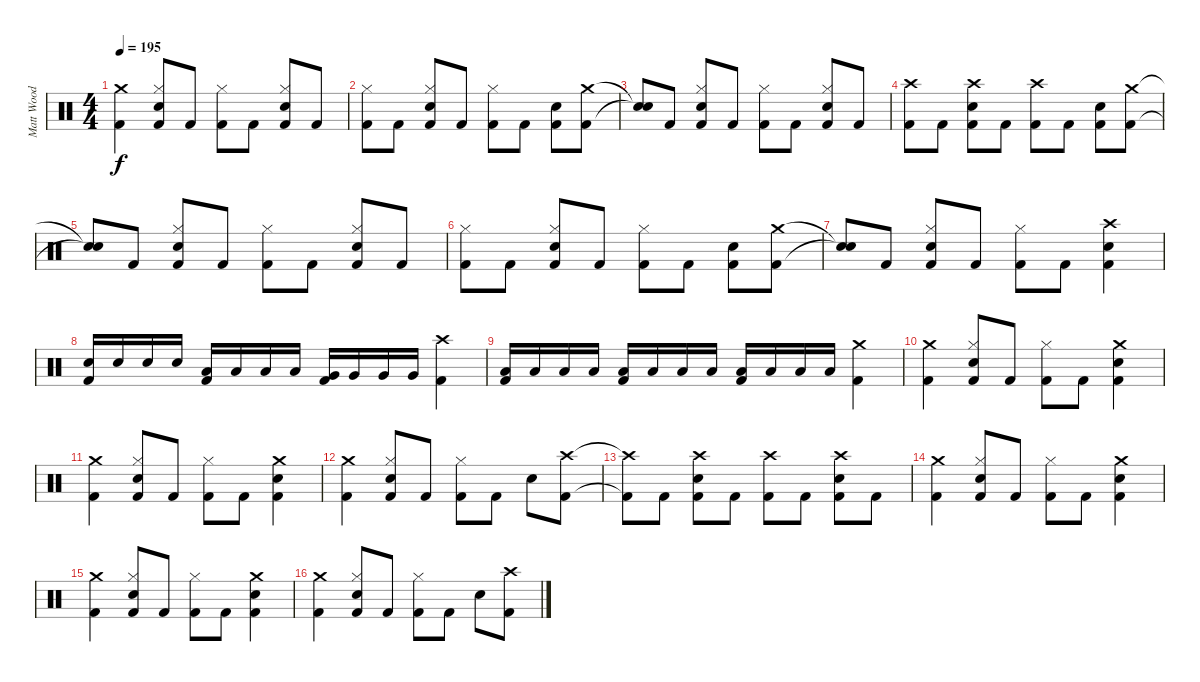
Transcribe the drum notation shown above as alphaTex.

\track ("Matt Wood" "Matt Wood") {instrument percussion}
\staff {score}
\articulation defaults
\ts (4 4)
\tempo 195
\clef neutral
\ks c
("Crash medium (hit)" "Kick (hit) 2").4{dy f} ("Hi-Hat (closed)" "Snare (hit) 2" "Kick (hit) 2").8 "Kick (hit) 2".8 ("Hi-Hat (closed)" "Kick (hit) 2").8 "Kick (hit) 2".8 ("Hi-Hat (closed)" "Snare (hit) 2" "Kick (hit) 2").8 "Kick (hit) 2".8 |
("Hi-Hat (closed)" "Kick (hit) 2").8 "Kick (hit) 2".8 ("Hi-Hat (closed)" "Snare (hit) 2" "Kick (hit) 2").8 "Kick (hit) 2".8 ("Hi-Hat (closed)" "Kick (hit) 2").8 "Kick (hit) 2".8 ("Snare (hit) 2" "Kick (hit) 2").8 ("Crash medium (hit)" "Kick (hit) 2").8 |
("Snare (hit)"{t} "Snare (hit)"{t}).8 "Kick (hit) 2".8 ("Hi-Hat (closed)" "Snare (hit) 2" "Kick (hit) 2").8 "Kick (hit) 2".8 ("Hi-Hat (closed)" "Kick (hit) 2").8 "Kick (hit) 2".8 ("Hi-Hat (closed)" "Snare (hit) 2" "Kick (hit) 2").8 "Kick (hit) 2".8 |
("Crash high (hit)" "Kick (hit) 2").8 "Kick (hit) 2".8 ("Crash high (hit)" "Snare (hit) 2" "Kick (hit) 2").8 "Kick (hit) 2".8 ("Crash high (hit)" "Kick (hit) 2").8 "Kick (hit) 2".8 ("Snare (hit) 2" "Kick (hit) 2").8 ("Crash medium (hit)" "Kick (hit) 2").8 |
("Snare (hit)"{t} "Snare (hit)"{t}).8 "Kick (hit) 2".8 ("Hi-Hat (closed)" "Snare (hit) 2" "Kick (hit) 2").8 "Kick (hit) 2".8 ("Hi-Hat (closed)" "Kick (hit) 2").8 "Kick (hit) 2".8 ("Hi-Hat (closed)" "Snare (hit) 2" "Kick (hit) 2").8 "Kick (hit) 2".8 |
("Hi-Hat (closed)" "Kick (hit) 2").8 "Kick (hit) 2".8 ("Hi-Hat (closed)" "Snare (hit) 2" "Kick (hit) 2").8 "Kick (hit) 2".8 ("Hi-Hat (closed)" "Kick (hit) 2").8 "Kick (hit) 2".8 ("Snare (hit) 2" "Kick (hit) 2").8 ("Crash medium (hit)" "Kick (hit) 2").8 |
("Snare (hit)"{t} "Snare (hit)"{t}).8 "Kick (hit) 2".8 ("Hi-Hat (closed)" "Snare (hit) 2" "Kick (hit) 2").8 "Kick (hit) 2".8 ("Hi-Hat (closed)" "Kick (hit) 2").8 "Kick (hit) 2".8 ("Crash high (hit)" "Snare (hit) 2" "Kick (hit) 2").4 |
("Snare (hit) 2" "Kick (hit) 2").16 "Snare (hit) 2".16 "Snare (hit) 2".16 "Snare (hit) 2".16 ("Low Tom (hit)" "Kick (hit) 2").16 "Low Tom (hit)".16 "Low Tom (hit)".16 "Low Tom (hit)".16 ("Very Low Tom (hit)" "Kick (hit) 2").16 "Very Low Tom (hit)".16 "Very Low Tom (hit)".16 "Very Low Tom (hit)".16 ("Crash high (hit)" "Kick (hit) 2").4 |
("Low Floor Tom (hit)" "Kick (hit) 2").16 "Low Floor Tom (hit)".16 "Low Floor Tom (hit)".16 "Low Floor Tom (hit)".16 ("Low Floor Tom (hit)" "Kick (hit) 2").16 "Low Floor Tom (hit)".16 "Low Floor Tom (hit)".16 "Low Floor Tom (hit)".16 ("Low Floor Tom (hit)" "Kick (hit) 2").16 "Low Floor Tom (hit)".16 "Low Floor Tom (hit)".16 "Low Floor Tom (hit)".16 ("Crash medium (hit)" "Kick (hit) 2").4 |
("Crash medium (hit)" "Kick (hit) 2").4 ("Hi-Hat (closed)" "Snare (hit) 2" "Kick (hit) 2").8 "Kick (hit) 2".8 ("Hi-Hat (closed)" "Kick (hit) 2").8 "Kick (hit) 2".8 ("Crash medium (hit)" "Snare (hit) 2" "Kick (hit) 2").4 |
("Crash medium (hit)" "Kick (hit) 2").4 ("Hi-Hat (closed)" "Snare (hit) 2" "Kick (hit) 2").8 "Kick (hit) 2".8 ("Hi-Hat (closed)" "Kick (hit) 2").8 "Kick (hit) 2".8 ("Crash medium (hit)" "Snare (hit) 2" "Kick (hit) 2").4 |
("Crash medium (hit)" "Kick (hit) 2").4 ("Hi-Hat (closed)" "Snare (hit) 2" "Kick (hit) 2").8 "Kick (hit) 2".8 ("Hi-Hat (closed)" "Kick (hit) 2").8 "Kick (hit) 2".8 "Snare (hit) 2".8 ("Crash high (hit)" "Kick (hit) 2").8 |
("Crash high (hit)"{t} "Kick (hit) 2"{t}).8 "Kick (hit) 2".8 ("Crash high (hit)" "Snare (hit) 2" "Kick (hit) 2").8 "Kick (hit) 2".8 ("Crash high (hit)" "Kick (hit) 2").8 "Kick (hit) 2".8 ("Crash high (hit)" "Snare (hit) 2" "Kick (hit) 2").8 "Kick (hit) 2".8 |
("Crash medium (hit)" "Kick (hit) 2").4 ("Hi-Hat (closed)" "Snare (hit) 2" "Kick (hit) 2").8 "Kick (hit) 2".8 ("Hi-Hat (closed)" "Kick (hit) 2").8 "Kick (hit) 2".8 ("Crash medium (hit)" "Snare (hit) 2" "Kick (hit) 2").4 |
("Crash medium (hit)" "Kick (hit) 2").4 ("Hi-Hat (closed)" "Snare (hit) 2" "Kick (hit) 2").8 "Kick (hit) 2".8 ("Hi-Hat (closed)" "Kick (hit) 2").8 "Kick (hit) 2".8 ("Crash medium (hit)" "Snare (hit) 2" "Kick (hit) 2").4 |
("Crash medium (hit)" "Kick (hit) 2").4 ("Hi-Hat (closed)" "Snare (hit) 2" "Kick (hit) 2").8 "Kick (hit) 2".8 ("Hi-Hat (closed)" "Kick (hit) 2").8 "Kick (hit) 2".8 "Snare (hit) 2".8 ("Crash high (hit)" "Kick (hit) 2").8
